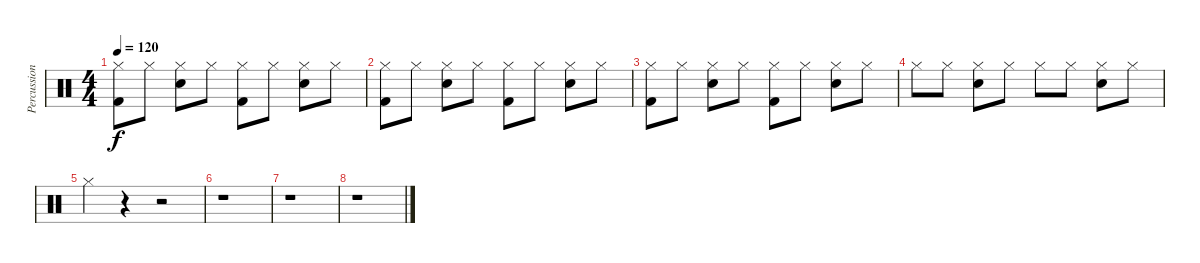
\track ("Percussion" "Percussion") {instrument percussion}
\staff {score}
\articulation defaults
\ts (4 4)
\tempo 120
\clef neutral
\ks c
("Hi-Hat (closed)" "Kick (hit) 2").8{dy f} "Hi-Hat (closed)".8 ("Hi-Hat (closed)" "Snare (hit) 2").8 "Hi-Hat (closed)".8 ("Hi-Hat (closed)" "Kick (hit) 2").8 "Hi-Hat (closed)".8 ("Hi-Hat (closed)" "Snare (hit) 2").8 "Hi-Hat (closed)".8 |
("Hi-Hat (closed)" "Kick (hit) 2").8 "Hi-Hat (closed)".8 ("Hi-Hat (closed)" "Snare (hit) 2").8 "Hi-Hat (closed)".8 ("Hi-Hat (closed)" "Kick (hit) 2").8 "Hi-Hat (closed)".8 ("Hi-Hat (closed)" "Snare (hit) 2").8 "Hi-Hat (closed)".8 |
("Hi-Hat (closed)" "Kick (hit) 2").8 "Hi-Hat (closed)".8 ("Hi-Hat (closed)" "Snare (hit) 2").8 "Hi-Hat (closed)".8 ("Hi-Hat (closed)" "Kick (hit) 2").8 "Hi-Hat (closed)".8 ("Hi-Hat (closed)" "Snare (hit) 2").8 "Hi-Hat (closed)".8 |
"Hi-Hat (closed)".8 "Hi-Hat (closed)".8 ("Hi-Hat (closed)" "Snare (hit) 2").8 "Hi-Hat (closed)".8 "Hi-Hat (closed)".8 "Hi-Hat (closed)".8 ("Hi-Hat (closed)" "Snare (hit) 2").8 "Hi-Hat (closed)".8 |
"Hi-Hat (closed)".4 r.4 r.2 |
r.1 |
r.1 |
r.1
